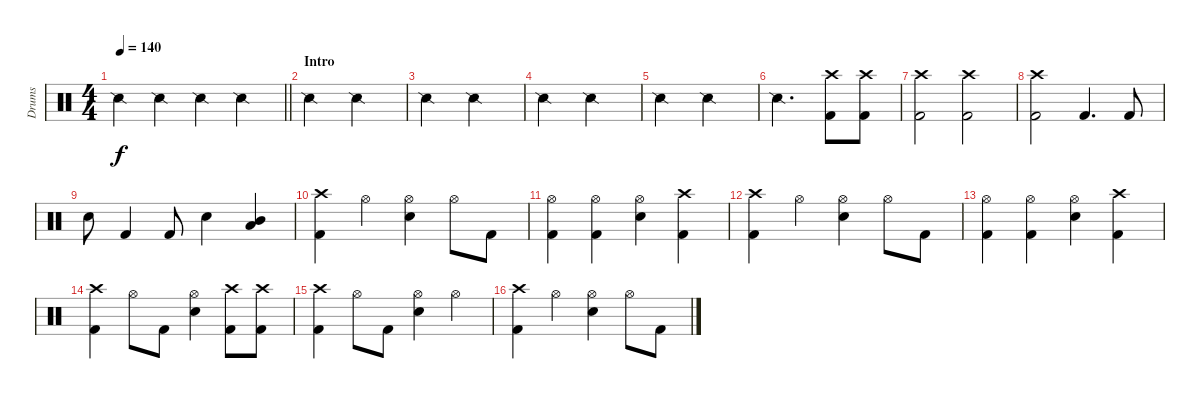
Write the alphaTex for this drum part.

\track ("Drums" "Drums") {instrument percussion}
\staff {score}
\articulation defaults
\ts (4 4)
\tempo 140
\clef neutral
\barLineRight lightlight
\ks c "Snare (side stick) 2".4{dy f} "Snare (side stick) 2".4 "Snare (side stick) 2".4 "Snare (side stick) 2".4
|
\section ("" "Intro")
"Snare (side stick) 2".2 "Snare (side stick) 2".2 |
"Snare (side stick) 2".2 "Snare (side stick) 2".2 |
"Snare (side stick) 2".2 "Snare (side stick) 2".2 |
"Snare (side stick) 2".2 "Snare (side stick) 2".2 |
"Snare (side stick) 2".2{d} ("Crash high (hit)" "Kick (hit) 2").8 ("Crash high (hit)" "Kick (hit) 2").8 |
("Crash high (hit)" "Kick (hit) 2").2 ("Crash high (hit)" "Kick (hit) 2").2 |
("Crash high (hit)" "Kick (hit) 2").2 "Kick (hit) 2".4{d} "Kick (hit) 2".8 |
"Snare (hit) 2".8 "Kick (hit) 2".4 "Kick (hit) 2".8 "Electric Snare (hit)".4 ("Mid Tom (hit)" "Low Tom (hit)").4 |
("Crash high (hit)" "Kick (hit) 2").4 "Hi-Hat (open)".4 ("Hi-Hat (open)" "Electric Snare (hit)").4 "Hi-Hat (open)".8 "Kick (hit) 2".8 |
("Hi-Hat (open)" "Kick (hit) 2").4 ("Hi-Hat (open)" "Kick (hit) 2").4 ("Hi-Hat (open)" "Electric Snare (hit)").4 ("Crash high (hit)" "Kick (hit) 2").4 |
("Crash high (hit)" "Kick (hit) 2").4 "Hi-Hat (open)".4 ("Hi-Hat (open)" "Electric Snare (hit)").4 "Hi-Hat (open)".8 "Kick (hit) 2".8 |
("Hi-Hat (open)" "Kick (hit) 2").4 ("Hi-Hat (open)" "Kick (hit) 2").4 ("Hi-Hat (open)" "Electric Snare (hit)").4 ("Crash high (hit)" "Kick (hit) 2").4 |
("Crash high (hit)" "Kick (hit) 2").4 "Hi-Hat (open)".8 "Kick (hit) 2".8 ("Hi-Hat (open)" "Electric Snare (hit)").4 ("Crash high (hit)" "Kick (hit) 2").8 ("Crash high (hit)" "Kick (hit) 2").8 |
("Crash high (hit)" "Kick (hit) 2").4 "Hi-Hat (open)".8 "Kick (hit) 2".8 ("Hi-Hat (open)" "Electric Snare (hit)").4 "Hi-Hat (open)".4 |
("Crash high (hit)" "Kick (hit) 2").4 "Hi-Hat (open)".4 ("Hi-Hat (open)" "Electric Snare (hit)").4 "Hi-Hat (open)".8 "Kick (hit) 2".8
